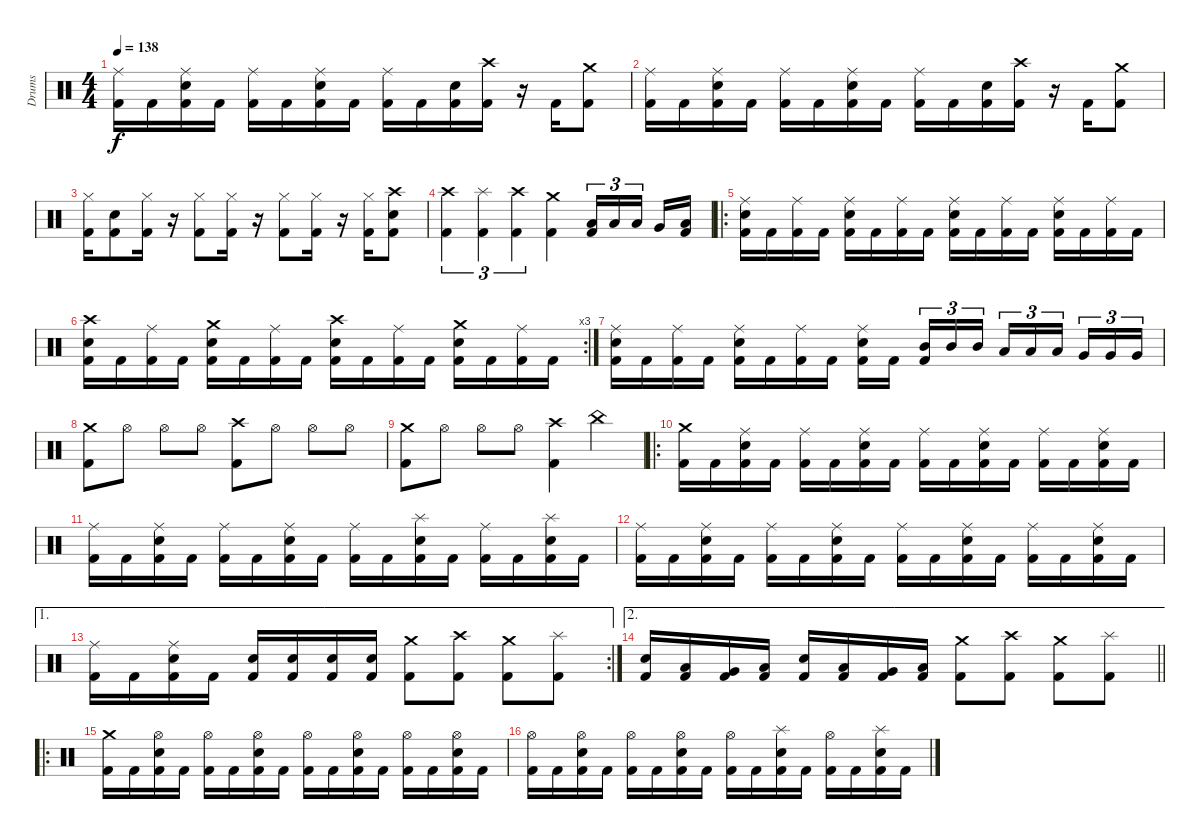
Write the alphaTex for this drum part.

\track ("Drums" "Drums") {instrument percussion}
\staff {score}
\articulation defaults
\ts (4 4)
\tempo 138
\clef neutral
\ks c
("Ride (middle)" "Kick (hit) 2").16{dy f} "Kick (hit) 2".16 ("Ride (middle)" "Electric Snare (hit)" "Kick (hit) 2").16 "Kick (hit) 2".16 ("Ride (middle)" "Kick (hit) 2").16 "Kick (hit) 2".16 ("Ride (middle)" "Electric Snare (hit)" "Kick (hit) 2").16 "Kick (hit) 2".16 ("Ride (middle)" "Kick (hit) 2").16 "Kick (hit) 2".16 ("Electric Snare (hit)" "Kick (hit) 2").16 ("Crash high (hit)" "Kick (hit) 2").16 r.16 "Kick (hit) 2".16 ("Crash medium (hit)" "Kick (hit) 2").8 |
("Ride (middle)" "Kick (hit) 2").16 "Kick (hit) 2".16 ("Ride (middle)" "Electric Snare (hit)" "Kick (hit) 2").16 "Kick (hit) 2".16 ("Ride (middle)" "Kick (hit) 2").16 "Kick (hit) 2".16 ("Ride (middle)" "Electric Snare (hit)" "Kick (hit) 2").16 "Kick (hit) 2".16 ("Ride (middle)" "Kick (hit) 2").16 "Kick (hit) 2".16 ("Electric Snare (hit)" "Kick (hit) 2").16 ("Crash high (hit)" "Kick (hit) 2").16 r.16 "Kick (hit) 2".16 ("Crash medium (hit)" "Kick (hit) 2").8 |
("Hi-Hat (closed)" "Kick (hit) 2").16 ("Electric Snare (hit)" "Kick (hit) 2").8 ("Hi-Hat (closed)" "Kick (hit) 2").16 r.16 ("Hi-Hat (closed)" "Kick (hit) 2").8 ("Hi-Hat (closed)" "Kick (hit) 2").16 r.16 ("Hi-Hat (closed)" "Kick (hit) 2").8 ("Hi-Hat (closed)" "Kick (hit) 2").16 r.16 ("Hi-Hat (closed)" "Kick (hit) 2").16 ("Crash high (hit)" "Electric Snare (hit)" "Kick (hit) 2").8 |
("Crash high (hit)" "Kick (hit) 2").4{tu (3 2)} ("Splash (hit)" "Kick (hit) 2").4{tu (3 2)} ("Crash high (hit)" "Kick (hit) 2").4{tu (3 2)} ("Crash medium (hit)" "Kick (hit) 2").4 ("Low Tom (hit)" "Kick (hit) 2").16{tu (3 2)} "Low Tom (hit)".16{tu (3 2)} "Low Tom (hit)".16{tu (3 2) beam splitsecondary} "Very Low Tom (hit)".16 ("Low Floor Tom (hit)" "Kick (hit) 2").16 |
\ro
("Ride (middle)" "Electric Snare (hit)" "Kick (hit) 2").16 "Kick (hit) 2".16 ("Ride (middle)" "Kick (hit) 2").16 "Kick (hit) 2".16 ("Ride (middle)" "Electric Snare (hit)" "Kick (hit) 2").16 "Kick (hit) 2".16 ("Ride (middle)" "Kick (hit) 2").16 "Kick (hit) 2".16 ("Ride (middle)" "Electric Snare (hit)" "Kick (hit) 2").16 "Kick (hit) 2".16 ("Ride (middle)" "Kick (hit) 2").16 "Kick (hit) 2".16 ("Ride (middle)" "Electric Snare (hit)" "Kick (hit) 2").16 "Kick (hit) 2".16 ("Ride (middle)" "Kick (hit) 2").16 "Kick (hit) 2".16 |
\rc 3
("Crash high (hit)" "Electric Snare (hit)" "Kick (hit) 2").16 "Kick (hit) 2".16 ("Ride (middle)" "Kick (hit) 2").16 "Kick (hit) 2".16 ("Crash medium (hit)" "Electric Snare (hit)" "Kick (hit) 2").16 "Kick (hit) 2".16 ("Ride (middle)" "Kick (hit) 2").16 "Kick (hit) 2".16 ("Crash high (hit)" "Electric Snare (hit)" "Kick (hit) 2").16 "Kick (hit) 2".16 ("Ride (middle)" "Kick (hit) 2").16 "Kick (hit) 2".16 ("Crash medium (hit)" "Electric Snare (hit)" "Kick (hit) 2").16 "Kick (hit) 2".16 ("Ride (middle)" "Kick (hit) 2").16 "Kick (hit) 2".16 |
("Ride (middle)" "Electric Snare (hit)" "Kick (hit) 2").16 "Kick (hit) 2".16 ("Ride (middle)" "Kick (hit) 2").16 "Kick (hit) 2".16 ("Ride (middle)" "Electric Snare (hit)" "Kick (hit) 2").16 "Kick (hit) 2".16 ("Ride (middle)" "Kick (hit) 2").16 "Kick (hit) 2".16 ("Ride (middle)" "Electric Snare (hit)" "Kick (hit) 2").16 "Kick (hit) 2".16{beam splitsecondary} ("Mid Tom (hit)" "Kick (hit) 2").16{tu (3 2)} "Mid Tom (hit)".16{tu (3 2)} "Mid Tom (hit)".16{tu (3 2)} "Low Tom (hit)".16{tu (3 2)} "Low Tom (hit)".16{tu (3 2)} "Low Tom (hit)".16{tu (3 2) beam splitsecondary} "Very Low Tom (hit)".16{tu (3 2)} "Very Low Tom (hit)".16{tu (3 2)} "Very Low Tom (hit)".16{tu (3 2)} |
("Crash medium (hit)" "Kick (hit) 2").8 "Hi-Hat (open)".8 "Hi-Hat (open)".8 "Hi-Hat (open)".8 ("Crash high (hit)" "Kick (hit) 2").8 "Hi-Hat (open)".8 "Hi-Hat (open)".8 "Hi-Hat (open)".8 |
("Crash medium (hit)" "Kick (hit) 2").8 "Hi-Hat (open)".8 "Hi-Hat (open)".8 "Hi-Hat (open)".8 ("Crash high (hit)" "Kick (hit) 2").4 "China (hit)".4 |
\ro
("Crash medium (hit)" "Kick (hit) 2").16 "Kick (hit) 2".16 ("Ride (middle)" "Electric Snare (hit)" "Kick (hit) 2").16 "Kick (hit) 2".16 ("Ride (middle)" "Kick (hit) 2").16 "Kick (hit) 2".16 ("Ride (middle)" "Electric Snare (hit)" "Kick (hit) 2").16 "Kick (hit) 2".16 ("Ride (middle)" "Kick (hit) 2").16 "Kick (hit) 2".16 ("Ride (middle)" "Electric Snare (hit)" "Kick (hit) 2").16 "Kick (hit) 2".16 ("Ride (middle)" "Kick (hit) 2").16 "Kick (hit) 2".16 ("Ride (middle)" "Electric Snare (hit)" "Kick (hit) 2").16 "Kick (hit) 2".16 |
("Ride (middle)" "Kick (hit) 2").16 "Kick (hit) 2".16 ("Ride (middle)" "Electric Snare (hit)" "Kick (hit) 2").16 "Kick (hit) 2".16 ("Ride (middle)" "Kick (hit) 2").16 "Kick (hit) 2".16 ("Ride (middle)" "Electric Snare (hit)" "Kick (hit) 2").16 "Kick (hit) 2".16 ("Ride (middle)" "Kick (hit) 2").16 "Kick (hit) 2".16 ("Splash (hit)" "Electric Snare (hit)" "Kick (hit) 2").16 "Kick (hit) 2".16 ("Ride (middle)" "Kick (hit) 2").16 "Kick (hit) 2".16 ("Splash (hit)" "Electric Snare (hit)" "Kick (hit) 2").16 "Kick (hit) 2".16 |
("Ride (middle)" "Kick (hit) 2").16 "Kick (hit) 2".16 ("Ride (middle)" "Electric Snare (hit)" "Kick (hit) 2").16 "Kick (hit) 2".16 ("Ride (middle)" "Kick (hit) 2").16 "Kick (hit) 2".16 ("Ride (middle)" "Electric Snare (hit)" "Kick (hit) 2").16 "Kick (hit) 2".16 ("Ride (middle)" "Kick (hit) 2").16 "Kick (hit) 2".16 ("Ride (middle)" "Electric Snare (hit)" "Kick (hit) 2").16 "Kick (hit) 2".16 ("Ride (middle)" "Kick (hit) 2").16 "Kick (hit) 2".16 ("Ride (middle)" "Electric Snare (hit)" "Kick (hit) 2").16 "Kick (hit) 2".16 |
\ae 1
\rc 2
("Ride (middle)" "Kick (hit) 2").16 "Kick (hit) 2".16 ("Ride (middle)" "Electric Snare (hit)" "Kick (hit) 2").16 "Kick (hit) 2".16 ("Electric Snare (hit)" "Kick (hit) 2").16 ("Electric Snare (hit)" "Kick (hit) 2").16 ("Electric Snare (hit)" "Kick (hit) 2").16 ("Electric Snare (hit)" "Kick (hit) 2").16 ("Crash medium (hit)" "Kick (hit) 2").8 ("Crash high (hit)" "Kick (hit) 2").8 ("Crash medium (hit)" "Kick (hit) 2").8 ("Splash (hit)" "Kick (hit) 2").8 |
\ae 2
\barLineRight lightlight
("Electric Snare (hit)" "Kick (hit) 2").16 ("Low Tom (hit)" "Kick (hit) 2").16 ("Very Low Tom (hit)" "Kick (hit) 2").16 ("Low Floor Tom (hit)" "Kick (hit) 2").16 ("Electric Snare (hit)" "Kick (hit) 2").16 ("Low Tom (hit)" "Kick (hit) 2").16 ("Very Low Tom (hit)" "Kick (hit) 2").16 ("Low Floor Tom (hit)" "Kick (hit) 2").16 ("Crash medium (hit)" "Kick (hit) 2").8 ("Crash high (hit)" "Kick (hit) 2").8 ("Crash medium (hit)" "Kick (hit) 2").8 ("Splash (hit)" "Kick (hit) 2").8 |
\ro
("Crash medium (hit)" "Kick (hit) 2").16 "Kick (hit) 2".16 ("Hi-Hat (open)" "Electric Snare (hit)" "Kick (hit) 2").16 "Kick (hit) 2".16 ("Hi-Hat (open)" "Kick (hit) 2").16 "Kick (hit) 2".16 ("Hi-Hat (open)" "Electric Snare (hit)" "Kick (hit) 2").16 "Kick (hit) 2".16 ("Hi-Hat (open)" "Kick (hit) 2").16 "Kick (hit) 2".16 ("Hi-Hat (open)" "Electric Snare (hit)" "Kick (hit) 2").16 "Kick (hit) 2".16 ("Hi-Hat (open)" "Kick (hit) 2").16 "Kick (hit) 2".16 ("Hi-Hat (open)" "Electric Snare (hit)" "Kick (hit) 2").16 "Kick (hit) 2".16 |
("Hi-Hat (open)" "Kick (hit) 2").16 "Kick (hit) 2".16 ("Hi-Hat (open)" "Electric Snare (hit)" "Kick (hit) 2").16 "Kick (hit) 2".16 ("Hi-Hat (open)" "Kick (hit) 2").16 "Kick (hit) 2".16 ("Hi-Hat (open)" "Electric Snare (hit)" "Kick (hit) 2").16 "Kick (hit) 2".16 ("Hi-Hat (open)" "Kick (hit) 2").16 "Kick (hit) 2".16 ("Splash (hit)" "Electric Snare (hit)" "Kick (hit) 2").16 "Kick (hit) 2".16 ("Hi-Hat (open)" "Kick (hit) 2").16 "Kick (hit) 2".16 ("Splash (hit)" "Electric Snare (hit)" "Kick (hit) 2").16 "Kick (hit) 2".16
